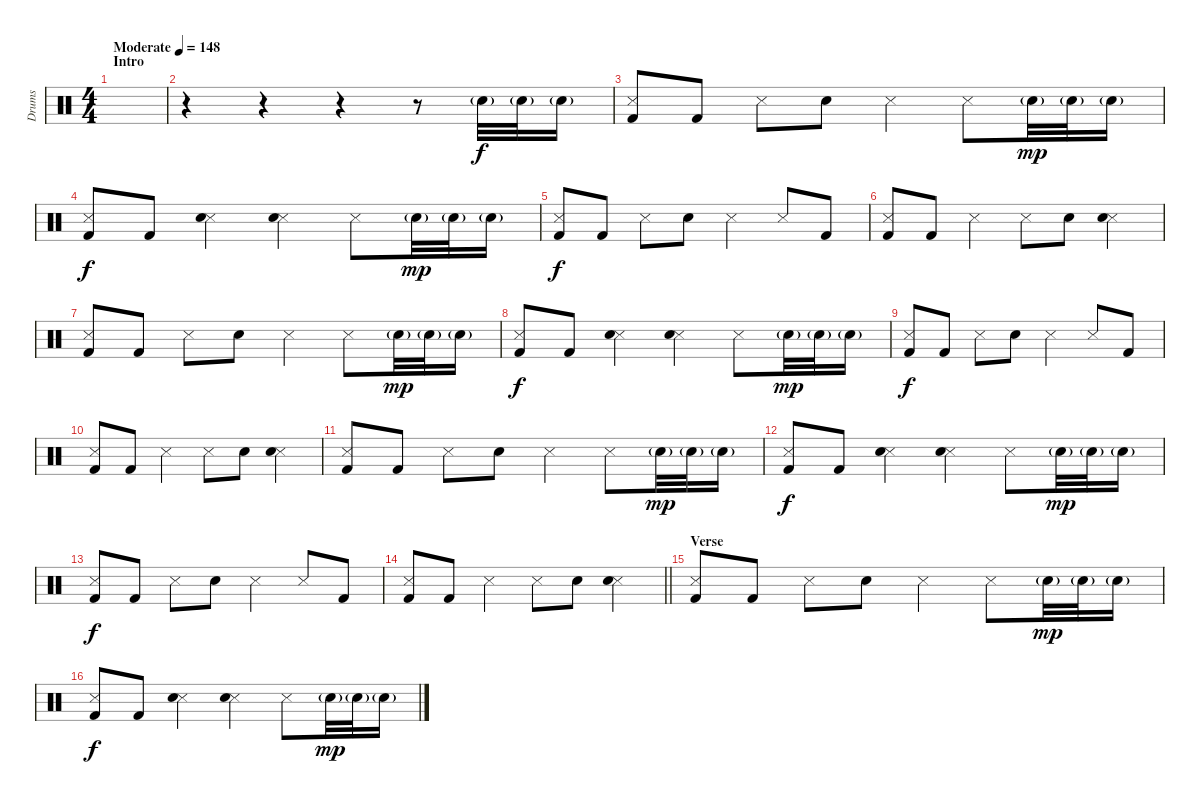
\track ("Drums" "Drums") {instrument percussion}
\staff {score}
\articulation defaults
\ts (4 4)
\section ("" "Intro")
\tempo (148 "Moderate")
\clef neutral
\ks c
|
r.4 r.4 r.4 r.8 "Electric Snare (hit)"{g}.32 "Electric Snare (hit)"{g}.32 "Electric Snare (hit)"{g}.16 |
("Snare (side stick) 3" "Kick (hit) 2").8{dy f} "Kick (hit) 2".8 "Snare (side stick) 3".8 "Electric Snare (hit)".8 "Snare (side stick) 3".4 "Snare (side stick) 3".8 "Electric Snare (hit)"{g}.32{dy mp} "Electric Snare (hit)"{g}.32 "Electric Snare (hit)"{g}.16 |
("Snare (side stick) 3" "Kick (hit) 2").8{dy f} "Kick (hit) 2".8 ("Snare (side stick) 3" "Electric Snare (hit)").4 ("Snare (side stick) 3" "Electric Snare (hit)").4 "Snare (side stick) 3".8 "Electric Snare (hit)"{g}.32{dy mp} "Electric Snare (hit)"{g}.32 "Electric Snare (hit)"{g}.16 |
("Snare (side stick) 3" "Kick (hit) 2").8{dy f} "Kick (hit) 2".8 "Snare (side stick) 3".8 "Electric Snare (hit)".8 "Snare (side stick) 3".4 "Snare (side stick) 3".8 "Kick (hit) 2".8 |
("Snare (side stick) 3" "Kick (hit) 2").8 "Kick (hit) 2".8 "Snare (side stick) 3".4 "Snare (side stick) 3".8 "Electric Snare (hit)".8 ("Snare (side stick) 3" "Electric Snare (hit)").4 |
("Snare (side stick) 3" "Kick (hit) 2").8 "Kick (hit) 2".8 "Snare (side stick) 3".8 "Electric Snare (hit)".8 "Snare (side stick) 3".4 "Snare (side stick) 3".8 "Electric Snare (hit)"{g}.32{dy mp} "Electric Snare (hit)"{g}.32 "Electric Snare (hit)"{g}.16 |
("Snare (side stick) 3" "Kick (hit) 2").8{dy f} "Kick (hit) 2".8 ("Snare (side stick) 3" "Electric Snare (hit)").4 ("Snare (side stick) 3" "Electric Snare (hit)").4 "Snare (side stick) 3".8 "Electric Snare (hit)"{g}.32{dy mp} "Electric Snare (hit)"{g}.32 "Electric Snare (hit)"{g}.16 |
("Snare (side stick) 3" "Kick (hit) 2").8{dy f} "Kick (hit) 2".8 "Snare (side stick) 3".8 "Electric Snare (hit)".8 "Snare (side stick) 3".4 "Snare (side stick) 3".8 "Kick (hit) 2".8 |
("Snare (side stick) 3" "Kick (hit) 2").8 "Kick (hit) 2".8 "Snare (side stick) 3".4 "Snare (side stick) 3".8 "Electric Snare (hit)".8 ("Snare (side stick) 3" "Electric Snare (hit)").4 |
("Snare (side stick) 3" "Kick (hit) 2").8 "Kick (hit) 2".8 "Snare (side stick) 3".8 "Electric Snare (hit)".8 "Snare (side stick) 3".4 "Snare (side stick) 3".8 "Electric Snare (hit)"{g}.32{dy mp} "Electric Snare (hit)"{g}.32 "Electric Snare (hit)"{g}.16 |
("Snare (side stick) 3" "Kick (hit) 2").8{dy f} "Kick (hit) 2".8 ("Snare (side stick) 3" "Electric Snare (hit)").4 ("Snare (side stick) 3" "Electric Snare (hit)").4 "Snare (side stick) 3".8 "Electric Snare (hit)"{g}.32{dy mp} "Electric Snare (hit)"{g}.32 "Electric Snare (hit)"{g}.16 |
("Snare (side stick) 3" "Kick (hit) 2").8{dy f} "Kick (hit) 2".8 "Snare (side stick) 3".8 "Electric Snare (hit)".8 "Snare (side stick) 3".4 "Snare (side stick) 3".8 "Kick (hit) 2".8 |
\barLineRight lightlight
("Snare (side stick) 3" "Kick (hit) 2").8 "Kick (hit) 2".8 "Snare (side stick) 3".4 "Snare (side stick) 3".8 "Electric Snare (hit)".8 ("Snare (side stick) 3" "Electric Snare (hit)").4 |
\section ("" "Verse")
("Snare (side stick) 3" "Kick (hit) 2").8 "Kick (hit) 2".8 "Snare (side stick) 3".8 "Electric Snare (hit)".8 "Snare (side stick) 3".4 "Snare (side stick) 3".8 "Electric Snare (hit)"{g}.32{dy mp} "Electric Snare (hit)"{g}.32 "Electric Snare (hit)"{g}.16 |
("Snare (side stick) 3" "Kick (hit) 2").8{dy f} "Kick (hit) 2".8 ("Snare (side stick) 3" "Electric Snare (hit)").4 ("Snare (side stick) 3" "Electric Snare (hit)").4 "Snare (side stick) 3".8 "Electric Snare (hit)"{g}.32{dy mp} "Electric Snare (hit)"{g}.32 "Electric Snare (hit)"{g}.16
